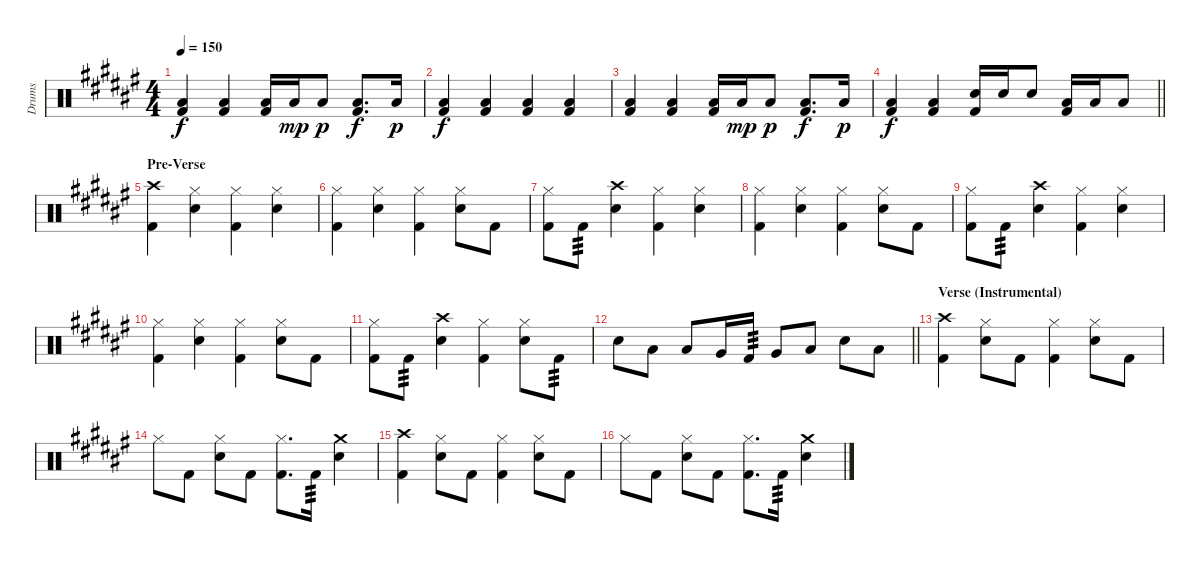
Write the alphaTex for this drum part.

\track ("Drums" "Drums") {instrument percussion}
\staff {score}
\articulation defaults
\ts (4 4)
\tempo 150
\clef neutral
\ks f#
("Low Floor Tom (hit)" "Kick (hit) 2").4{dy f} ("Low Floor Tom (hit)" "Kick (hit) 2").4 ("Low Floor Tom (hit)" "Kick (hit) 2").16 "Low Floor Tom (hit)".16{dy mp} "Low Floor Tom (hit)".8{dy p} ("Low Floor Tom (hit)" "Kick (hit) 2").8{d dy f} "Low Floor Tom (hit)".16{dy p} |
("Low Floor Tom (hit)" "Kick (hit) 2").4{dy f} ("Low Floor Tom (hit)" "Kick (hit) 2").4 ("Low Floor Tom (hit)" "Kick (hit) 2").4 ("Low Floor Tom (hit)" "Kick (hit) 2").4 |
("Low Floor Tom (hit)" "Kick (hit) 2").4 ("Low Floor Tom (hit)" "Kick (hit) 2").4 ("Low Floor Tom (hit)" "Kick (hit) 2").16 "Low Floor Tom (hit)".16{dy mp} "Low Floor Tom (hit)".8{dy p} ("Low Floor Tom (hit)" "Kick (hit) 2").8{d dy f} "Low Floor Tom (hit)".16{dy p} |
\barLineRight lightlight
("Low Floor Tom (hit)" "Kick (hit) 2").4{dy f} ("Low Floor Tom (hit)" "Kick (hit) 2").4 ("Electric Snare (hit)" "Kick (hit) 2").16 "Electric Snare (hit)".16 "Electric Snare (hit)".8 ("Low Floor Tom (hit)" "Kick (hit) 2").16 "Low Floor Tom (hit)".16 "Low Floor Tom (hit)".8 |
\section ("" "Pre-Verse")
("Crash high (hit)" "Kick (hit) 2").4 ("Electric Snare (hit)" "Hi-Hat (closed)").4 ("Hi-Hat (closed)" "Kick (hit) 2").4 ("Electric Snare (hit)" "Hi-Hat (closed)").4 |
("Hi-Hat (closed)" "Kick (hit) 2").4 ("Electric Snare (hit)" "Hi-Hat (closed)").4 ("Hi-Hat (closed)" "Kick (hit) 2").4 ("Electric Snare (hit)" "Hi-Hat (closed)").8 "Kick (hit) 2".8 |
("Hi-Hat (closed)" "Kick (hit) 2").8 "Kick (hit) 2".8{tp 3} ("Crash high (hit)" "Electric Snare (hit)").4 ("Hi-Hat (closed)" "Kick (hit) 2").4 ("Electric Snare (hit)" "Hi-Hat (closed)").4 |
("Hi-Hat (closed)" "Kick (hit) 2").4 ("Electric Snare (hit)" "Hi-Hat (closed)").4 ("Hi-Hat (closed)" "Kick (hit) 2").4 ("Electric Snare (hit)" "Hi-Hat (closed)").8 "Kick (hit) 2".8 |
("Hi-Hat (closed)" "Kick (hit) 2").8 "Kick (hit) 2".8{tp 3} ("Crash high (hit)" "Electric Snare (hit)").4 ("Hi-Hat (closed)" "Kick (hit) 2").4 ("Electric Snare (hit)" "Hi-Hat (closed)").4 |
("Hi-Hat (closed)" "Kick (hit) 2").4 ("Electric Snare (hit)" "Hi-Hat (closed)").4 ("Hi-Hat (closed)" "Kick (hit) 2").4 ("Electric Snare (hit)" "Hi-Hat (closed)").8 "Kick (hit) 2".8 |
("Hi-Hat (closed)" "Kick (hit) 2").8 "Kick (hit) 2".8{tp 3} ("Crash high (hit)" "Electric Snare (hit)").4 ("Hi-Hat (closed)" "Kick (hit) 2").4 ("Electric Snare (hit)" "Hi-Hat (closed)").8 "Kick (hit) 2".8{tp 3} |
\barLineRight lightlight "Electric Snare (hit)".8 "Low Tom (hit)".8 "Low Tom (hit)".8 "Very Low Tom (hit)".16 "Kick (hit) 2".16{tp 3} "Very Low Tom (hit)".8 "Low Floor Tom (hit)".8 "Electric Snare (hit)".8 "Low Floor Tom (hit)".8
|
\section ("" "Verse (Instrumental)")
("Crash high (hit)" "Kick (hit) 2").4 ("Electric Snare (hit)" "Hi-Hat (closed)").8 "Kick (hit) 2".8 ("Hi-Hat (closed)" "Kick (hit) 2").4 ("Electric Snare (hit)" "Hi-Hat (closed)").8 "Kick (hit) 2".8 |
"Hi-Hat (closed)".8 "Kick (hit) 2".8 ("Electric Snare (hit)" "Hi-Hat (closed)").8 "Kick (hit) 2".8 ("Hi-Hat (closed)" "Kick (hit) 2").8{d} "Kick (hit) 2".16{tp 3} ("Crash medium (hit)" "Electric Snare (hit)").4 |
("Crash high (hit)" "Kick (hit) 2").4 ("Electric Snare (hit)" "Hi-Hat (closed)").8 "Kick (hit) 2".8 ("Hi-Hat (closed)" "Kick (hit) 2").4 ("Electric Snare (hit)" "Hi-Hat (closed)").8 "Kick (hit) 2".8 |
"Hi-Hat (closed)".8 "Kick (hit) 2".8 ("Electric Snare (hit)" "Hi-Hat (closed)").8 "Kick (hit) 2".8 ("Hi-Hat (closed)" "Kick (hit) 2").8{d} "Kick (hit) 2".16{tp 3} ("Crash medium (hit)" "Electric Snare (hit)").4
